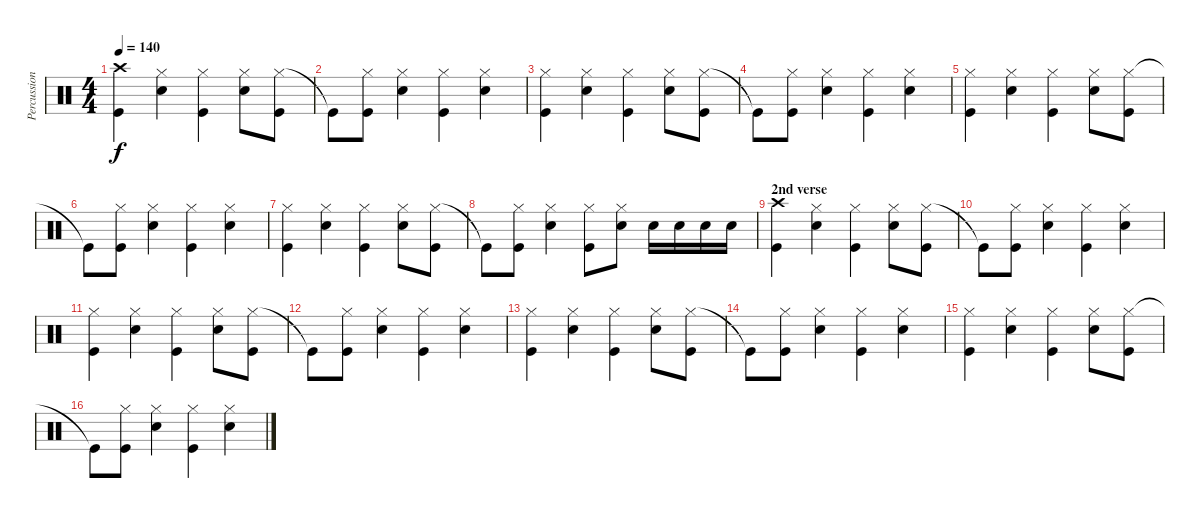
\track ("Percussion" "Percussion") {instrument percussion}
\staff {score}
\articulation defaults
\ts (4 4)
\tempo 140
\clef neutral
\ks c
("Crash high (hit)" "Kick (hit)").4{dy f} ("Hi-Hat (closed)" "Snare (hit) 2").4 ("Hi-Hat (closed)" "Kick (hit)").4 ("Hi-Hat (closed)" "Snare (hit) 2").8 ("Hi-Hat (closed)" "Kick (hit)").8 |
"Kick (hit)"{t}.8 ("Hi-Hat (closed)" "Kick (hit)").8 ("Hi-Hat (closed)" "Snare (hit) 2").4 ("Hi-Hat (closed)" "Kick (hit)").4 ("Hi-Hat (closed)" "Snare (hit) 2").4 |
("Hi-Hat (closed)" "Kick (hit)").4 ("Hi-Hat (closed)" "Snare (hit) 2").4 ("Hi-Hat (closed)" "Kick (hit)").4 ("Hi-Hat (closed)" "Snare (hit) 2").8 ("Hi-Hat (closed)" "Kick (hit)").8 |
"Kick (hit)"{t}.8 ("Hi-Hat (closed)" "Kick (hit)").8 ("Hi-Hat (closed)" "Snare (hit) 2").4 ("Hi-Hat (closed)" "Kick (hit)").4 ("Hi-Hat (closed)" "Snare (hit) 2").4 |
("Hi-Hat (closed)" "Kick (hit)").4 ("Hi-Hat (closed)" "Snare (hit) 2").4 ("Hi-Hat (closed)" "Kick (hit)").4 ("Hi-Hat (closed)" "Snare (hit) 2").8 ("Hi-Hat (closed)" "Kick (hit)").8 |
"Kick (hit)"{t}.8 ("Hi-Hat (closed)" "Kick (hit)").8 ("Hi-Hat (closed)" "Snare (hit) 2").4 ("Hi-Hat (closed)" "Kick (hit)").4 ("Hi-Hat (closed)" "Snare (hit) 2").4 |
("Hi-Hat (closed)" "Kick (hit)").4 ("Hi-Hat (closed)" "Snare (hit) 2").4 ("Hi-Hat (closed)" "Kick (hit)").4 ("Hi-Hat (closed)" "Snare (hit) 2").8 ("Hi-Hat (closed)" "Kick (hit)").8 |
"Kick (hit)"{t}.8 ("Hi-Hat (closed)" "Kick (hit)").8 ("Hi-Hat (closed)" "Snare (hit) 2").4 ("Hi-Hat (closed)" "Kick (hit)").8 ("Hi-Hat (closed)" "Snare (hit) 2").8 "Snare (hit) 2".16 "Snare (hit) 2".16 "Snare (hit) 2".16 "Snare (hit) 2".16 |
\section ("" "2nd verse")
("Crash high (hit)" "Kick (hit)").4 ("Hi-Hat (closed)" "Snare (hit) 2").4 ("Hi-Hat (closed)" "Kick (hit)").4 ("Hi-Hat (closed)" "Snare (hit) 2").8 ("Hi-Hat (closed)" "Kick (hit)").8 |
"Kick (hit)"{t}.8 ("Hi-Hat (closed)" "Kick (hit)").8 ("Hi-Hat (closed)" "Snare (hit) 2").4 ("Hi-Hat (closed)" "Kick (hit)").4 ("Hi-Hat (closed)" "Snare (hit) 2").4 |
("Hi-Hat (closed)" "Kick (hit)").4 ("Hi-Hat (closed)" "Snare (hit) 2").4 ("Hi-Hat (closed)" "Kick (hit)").4 ("Hi-Hat (closed)" "Snare (hit) 2").8 ("Hi-Hat (closed)" "Kick (hit)").8 |
"Kick (hit)"{t}.8 ("Hi-Hat (closed)" "Kick (hit)").8 ("Hi-Hat (closed)" "Snare (hit) 2").4 ("Hi-Hat (closed)" "Kick (hit)").4 ("Hi-Hat (closed)" "Snare (hit) 2").4 |
("Hi-Hat (closed)" "Kick (hit)").4 ("Hi-Hat (closed)" "Snare (hit) 2").4 ("Hi-Hat (closed)" "Kick (hit)").4 ("Hi-Hat (closed)" "Snare (hit) 2").8 ("Hi-Hat (closed)" "Kick (hit)").8 |
"Kick (hit)"{t}.8 ("Hi-Hat (closed)" "Kick (hit)").8 ("Hi-Hat (closed)" "Snare (hit) 2").4 ("Hi-Hat (closed)" "Kick (hit)").4 ("Hi-Hat (closed)" "Snare (hit) 2").4 |
("Hi-Hat (closed)" "Kick (hit)").4 ("Hi-Hat (closed)" "Snare (hit) 2").4 ("Hi-Hat (closed)" "Kick (hit)").4 ("Hi-Hat (closed)" "Snare (hit) 2").8 ("Hi-Hat (closed)" "Kick (hit)").8 |
"Kick (hit)"{t}.8 ("Hi-Hat (closed)" "Kick (hit)").8 ("Hi-Hat (closed)" "Snare (hit) 2").4 ("Hi-Hat (closed)" "Kick (hit)").4 ("Hi-Hat (closed)" "Snare (hit) 2").4
